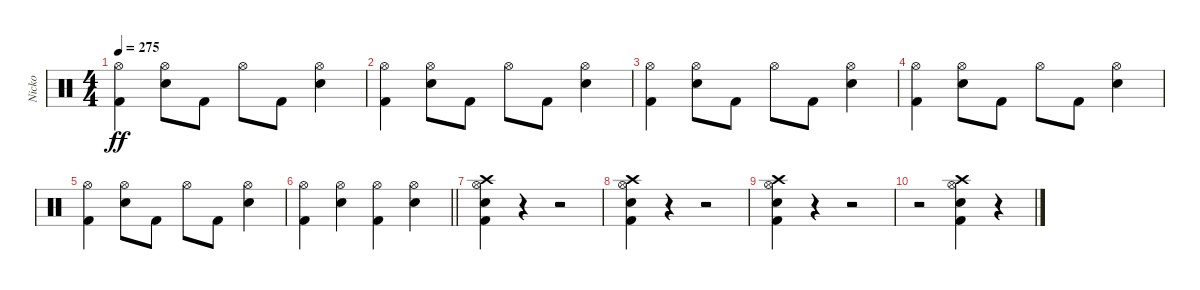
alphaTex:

\track ("Nicko" "Nicko") {instrument percussion}
\staff {score}
\articulation defaults
\ts (4 4)
\tempo 275
\clef neutral
\ks c
("Kick (hit) 2" "Hi-Hat (open)").4{dy ff} ("Snare (hit) 2" "Hi-Hat (open)").8 "Kick (hit) 2".8 "Hi-Hat (open)".8 "Kick (hit) 2".8 ("Snare (hit) 2" "Hi-Hat (open)").4 |
("Kick (hit) 2" "Hi-Hat (open)").4 ("Snare (hit) 2" "Hi-Hat (open)").8 "Kick (hit) 2".8 "Hi-Hat (open)".8 "Kick (hit) 2".8 ("Snare (hit) 2" "Hi-Hat (open)").4 |
("Kick (hit) 2" "Hi-Hat (open)").4 ("Snare (hit) 2" "Hi-Hat (open)").8 "Kick (hit) 2".8 "Hi-Hat (open)".8 "Kick (hit) 2".8 ("Snare (hit) 2" "Hi-Hat (open)").4 |
("Kick (hit) 2" "Hi-Hat (open)").4 ("Snare (hit) 2" "Hi-Hat (open)").8 "Kick (hit) 2".8 "Hi-Hat (open)".8 "Kick (hit) 2".8 ("Snare (hit) 2" "Hi-Hat (open)").4 |
("Kick (hit) 2" "Hi-Hat (open)").4 ("Snare (hit) 2" "Hi-Hat (open)").8 "Kick (hit) 2".8 "Hi-Hat (open)".8 "Kick (hit) 2".8 ("Snare (hit) 2" "Hi-Hat (open)").4 |
\barLineRight lightlight
("Kick (hit) 2" "Hi-Hat (open)").4 ("Snare (hit) 2" "Hi-Hat (open)").4 ("Kick (hit) 2" "Hi-Hat (open)").4 ("Snare (hit) 2" "Hi-Hat (open)").4 |
("Kick (hit) 2" "Snare (hit) 2" "Hi-Hat (open)" "Crash high (hit)").4 r.4 r.2 |
("Kick (hit) 2" "Snare (hit) 2" "Hi-Hat (open)" "Crash high (hit)").4 r.4 r.2 |
("Kick (hit) 2" "Snare (hit) 2" "Hi-Hat (open)" "Crash high (hit)").4 r.4 r.2 |
r.2 ("Kick (hit) 2" "Snare (hit) 2" "Hi-Hat (open)" "Crash high (hit)").4 r.4
